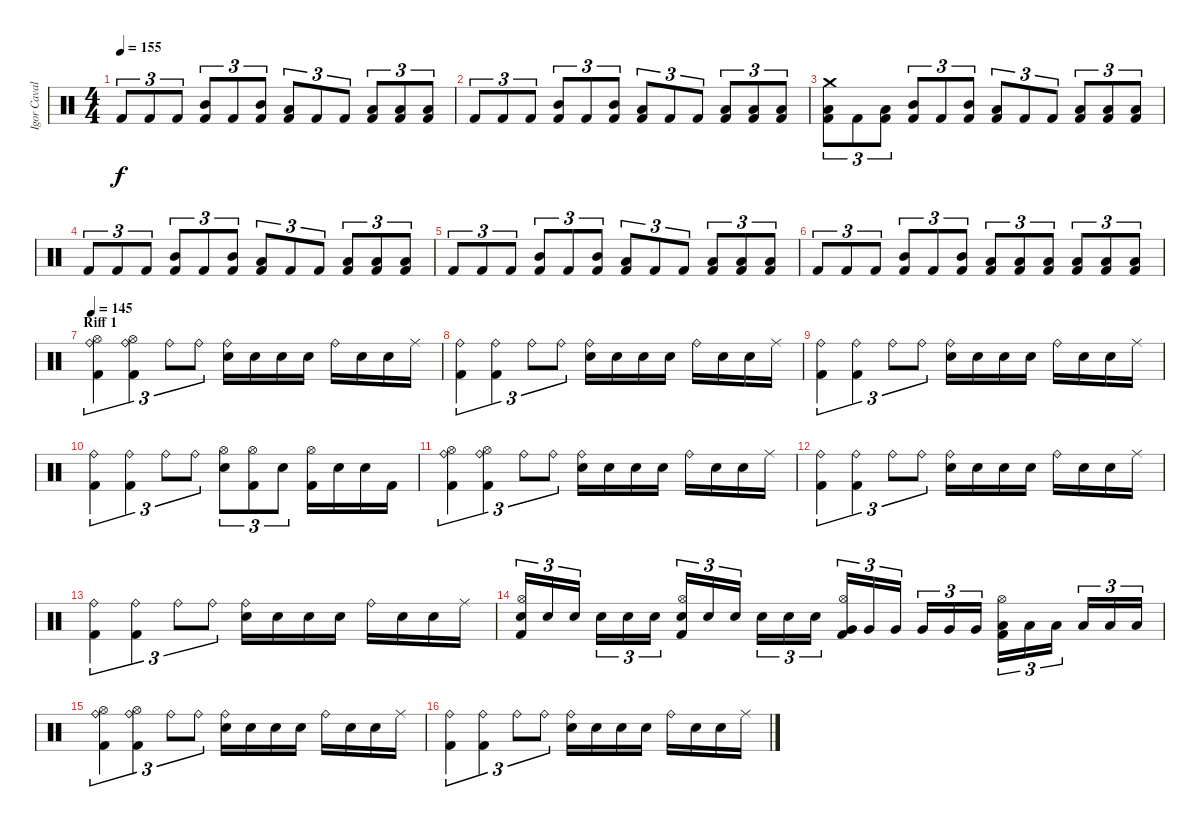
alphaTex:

\track ("Igor Cavalera - Drums" "Igor Caval") {instrument percussion}
\staff {score}
\articulation defaults
\ts (4 4)
\tempo 155
\clef neutral
\ks c "Kick (hit) 2".8{tu (3 2) dy f} "Kick (hit) 2".8{tu (3 2)} "Kick (hit) 2".8{tu (3 2)}
("Mid Tom (hit)" "Kick (hit) 2").8{tu (3 2)} "Kick (hit) 2".8{tu (3 2)} ("Mid Tom (hit)" "Kick (hit) 2").8{tu (3 2)} ("Low Tom (hit)" "Kick (hit) 2").8{tu (3 2)} "Kick (hit) 2".8{tu (3 2)} "Kick (hit) 2".8{tu (3 2)} ("Low Floor Tom (hit)" "Kick (hit) 2").8{tu (3 2)} ("Low Floor Tom (hit)" "Kick (hit) 2").8{tu (3 2)} ("Low Floor Tom (hit)" "Kick (hit) 2").8{tu (3 2)} |
"Kick (hit) 2".8{tu (3 2)} "Kick (hit) 2".8{tu (3 2)} "Kick (hit) 2".8{tu (3 2)} ("Mid Tom (hit)" "Kick (hit) 2").8{tu (3 2)} "Kick (hit) 2".8{tu (3 2)} ("Mid Tom (hit)" "Kick (hit) 2").8{tu (3 2)} ("Low Tom (hit)" "Kick (hit) 2").8{tu (3 2)} "Kick (hit) 2".8{tu (3 2)} "Kick (hit) 2".8{tu (3 2)} ("Low Floor Tom (hit)" "Kick (hit) 2").8{tu (3 2)} ("Low Floor Tom (hit)" "Kick (hit) 2").8{tu (3 2)} ("Low Floor Tom (hit)" "Kick (hit) 2").8{tu (3 2)} |
("Crash medium (hit)" "Low Tom (hit)" "Kick (hit) 2").8{tu (3 2)} "Kick (hit) 2".8{tu (3 2)} ("Low Tom (hit)" "Kick (hit) 2").8{tu (3 2)} ("Mid Tom (hit)" "Kick (hit) 2").8{tu (3 2)} "Kick (hit) 2".8{tu (3 2)} ("Mid Tom (hit)" "Kick (hit) 2").8{tu (3 2)} ("Low Tom (hit)" "Kick (hit) 2").8{tu (3 2)} "Kick (hit) 2".8{tu (3 2)} "Kick (hit) 2".8{tu (3 2)} ("Low Floor Tom (hit)" "Kick (hit) 2").8{tu (3 2)} ("Low Floor Tom (hit)" "Kick (hit) 2").8{tu (3 2)} ("Low Floor Tom (hit)" "Kick (hit) 2").8{tu (3 2)} |
"Kick (hit) 2".8{tu (3 2)} "Kick (hit) 2".8{tu (3 2)} "Kick (hit) 2".8{tu (3 2)} ("Mid Tom (hit)" "Kick (hit) 2").8{tu (3 2)} "Kick (hit) 2".8{tu (3 2)} ("Mid Tom (hit)" "Kick (hit) 2").8{tu (3 2)} ("Low Tom (hit)" "Kick (hit) 2").8{tu (3 2)} "Kick (hit) 2".8{tu (3 2)} "Kick (hit) 2".8{tu (3 2)} ("Low Floor Tom (hit)" "Kick (hit) 2").8{tu (3 2)} ("Low Floor Tom (hit)" "Kick (hit) 2").8{tu (3 2)} ("Low Floor Tom (hit)" "Kick (hit) 2").8{tu (3 2)} |
"Kick (hit) 2".8{tu (3 2)} "Kick (hit) 2".8{tu (3 2)} "Kick (hit) 2".8{tu (3 2)} ("Mid Tom (hit)" "Kick (hit) 2").8{tu (3 2)} "Kick (hit) 2".8{tu (3 2)} ("Mid Tom (hit)" "Kick (hit) 2").8{tu (3 2)} ("Low Tom (hit)" "Kick (hit) 2").8{tu (3 2)} "Kick (hit) 2".8{tu (3 2)} "Kick (hit) 2".8{tu (3 2)} ("Low Floor Tom (hit)" "Kick (hit) 2").8{tu (3 2)} ("Low Floor Tom (hit)" "Kick (hit) 2").8{tu (3 2)} ("Low Floor Tom (hit)" "Kick (hit) 2").8{tu (3 2)} |
"Kick (hit) 2".8{tu (3 2)} "Kick (hit) 2".8{tu (3 2)} "Kick (hit) 2".8{tu (3 2)} ("Mid Tom (hit)" "Kick (hit) 2").8{tu (3 2)} "Kick (hit) 2".8{tu (3 2)} ("Mid Tom (hit)" "Kick (hit) 2").8{tu (3 2)} ("Low Tom (hit)" "Kick (hit) 2").8{tu (3 2)} ("Low Floor Tom (hit)" "Kick (hit) 2").8{tu (3 2)} ("Low Floor Tom (hit)" "Kick (hit) 2").8{tu (3 2)} ("Low Floor Tom (hit)" "Kick (hit) 2").8{tu (3 2)} ("Low Floor Tom (hit)" "Kick (hit) 2").8{tu (3 2)} ("Low Floor Tom (hit)" "Kick (hit) 2").8{tu (3 2)} |
\section ("" "Riff 1")
\tempo 145
("Ride (bell)" "Hi-Hat (open)" "Kick (hit) 2").4{tu (3 2) volume 16 balance 8} ("Ride (bell)" "Hi-Hat (open)" "Kick (hit) 2").4{tu (3 2)} "Ride (bell)".8{tu (3 2)} "Ride (bell)".8{tu (3 2)} ("Ride (bell)" "Electric Snare (hit)").16 "Snare (hit)".16 "Snare (hit)".16 "Snare (hit)".16 "Ride (bell)".16 "Snare (hit)".16 "Snare (hit)".16 "Ride (middle)".16 |
("Ride (bell)" "Kick (hit) 2").4{tu (3 2)} ("Ride (bell)" "Kick (hit) 2").4{tu (3 2)} "Ride (bell)".8{tu (3 2)} "Ride (bell)".8{tu (3 2)} ("Ride (bell)" "Electric Snare (hit)").16 "Snare (hit)".16 "Snare (hit)".16 "Snare (hit)".16 "Ride (bell)".16 "Snare (hit)".16 "Snare (hit)".16 "Ride (middle)".16 |
("Ride (bell)" "Kick (hit) 2").4{tu (3 2)} ("Ride (bell)" "Kick (hit) 2").4{tu (3 2)} "Ride (bell)".8{tu (3 2)} "Ride (bell)".8{tu (3 2)} ("Ride (bell)" "Electric Snare (hit)").16 "Snare (hit)".16 "Snare (hit)".16 "Snare (hit)".16 "Ride (bell)".16 "Snare (hit)".16 "Snare (hit)".16 "Ride (middle)".16 |
("Ride (bell)" "Kick (hit) 2").4{tu (3 2)} ("Ride (bell)" "Kick (hit) 2").4{tu (3 2)} "Ride (bell)".8{tu (3 2)} "Ride (bell)".8{tu (3 2)} ("Hi-Hat (open)" "Electric Snare (hit)").8{tu (3 2)} ("Hi-Hat (open)" "Kick (hit) 2").8{tu (3 2)} "Snare (hit)".8{tu (3 2)} ("Hi-Hat (open)" "Kick (hit) 2").16 "Snare (hit)".16 "Snare (hit)".16 "Kick (hit) 2".16 |
("Ride (bell)" "Hi-Hat (open)" "Kick (hit) 2").4{tu (3 2)} ("Ride (bell)" "Hi-Hat (open)" "Kick (hit) 2").4{tu (3 2)} "Ride (bell)".8{tu (3 2)} "Ride (bell)".8{tu (3 2)} ("Ride (bell)" "Electric Snare (hit)").16 "Snare (hit)".16 "Snare (hit)".16 "Snare (hit)".16 "Ride (bell)".16 "Snare (hit)".16 "Snare (hit)".16 "Ride (middle)".16 |
("Ride (bell)" "Kick (hit) 2").4{tu (3 2)} ("Ride (bell)" "Kick (hit) 2").4{tu (3 2)} "Ride (bell)".8{tu (3 2)} "Ride (bell)".8{tu (3 2)} ("Ride (bell)" "Electric Snare (hit)").16 "Snare (hit)".16 "Snare (hit)".16 "Snare (hit)".16 "Ride (bell)".16 "Snare (hit)".16 "Snare (hit)".16 "Ride (middle)".16 |
("Ride (bell)" "Kick (hit) 2").4{tu (3 2)} ("Ride (bell)" "Kick (hit) 2").4{tu (3 2)} "Ride (bell)".8{tu (3 2)} "Ride (bell)".8{tu (3 2)} ("Ride (bell)" "Electric Snare (hit)").16 "Snare (hit)".16 "Snare (hit)".16 "Snare (hit)".16 "Ride (bell)".16 "Snare (hit)".16 "Snare (hit)".16 "Ride (middle)".16 |
("Hi-Hat (open)" "Electric Snare (hit)" "Kick (hit) 2").16{tu (3 2)} "Electric Snare (hit)".16{tu (3 2)} "Electric Snare (hit)".16{tu (3 2)} "Electric Snare (hit)".16{tu (3 2)} "Electric Snare (hit)".16{tu (3 2)} "Electric Snare (hit)".16{tu (3 2)} ("Hi-Hat (open)" "Snare (hit) 2" "Kick (hit) 2").16{tu (3 2)} "Snare (hit) 2".16{tu (3 2)} "Snare (hit) 2".16{tu (3 2)} "Snare (hit) 2".16{tu (3 2)} "Snare (hit) 2".16{tu (3 2)} "Snare (hit) 2".16{tu (3 2)} ("Hi-Hat (open)" "Very Low Tom (hit)" "Kick (hit) 2").16{tu (3 2)} "Very Low Tom (hit)".16{tu (3 2)} "Very Low Tom (hit)".16{tu (3 2)} "Very Low Tom (hit)".16{tu (3 2)} "Very Low Tom (hit)".16{tu (3 2)} "Very Low Tom (hit)".16{tu (3 2)} ("Hi-Hat (open)" "Low Floor Tom (hit)" "Kick (hit) 2").16{tu (3 2)} "Low Floor Tom (hit)".16{tu (3 2)} "Low Floor Tom (hit)".16{tu (3 2)} "Low Floor Tom (hit)".16{tu (3 2)} "Low Floor Tom (hit)".16{tu (3 2)} "Low Floor Tom (hit)".16{tu (3 2)} |
("Ride (bell)" "Hi-Hat (open)" "Kick (hit) 2").4{tu (3 2)} ("Ride (bell)" "Hi-Hat (open)" "Kick (hit) 2").4{tu (3 2)} "Ride (bell)".8{tu (3 2)} "Ride (bell)".8{tu (3 2)} ("Ride (bell)" "Electric Snare (hit)").16 "Snare (hit)".16 "Snare (hit)".16 "Snare (hit)".16 "Ride (bell)".16 "Snare (hit)".16 "Snare (hit)".16 "Ride (middle)".16 |
("Ride (bell)" "Kick (hit) 2").4{tu (3 2)} ("Ride (bell)" "Kick (hit) 2").4{tu (3 2)} "Ride (bell)".8{tu (3 2)} "Ride (bell)".8{tu (3 2)} ("Ride (bell)" "Electric Snare (hit)").16 "Snare (hit)".16 "Snare (hit)".16 "Snare (hit)".16 "Ride (bell)".16 "Snare (hit)".16 "Snare (hit)".16 "Ride (middle)".16
